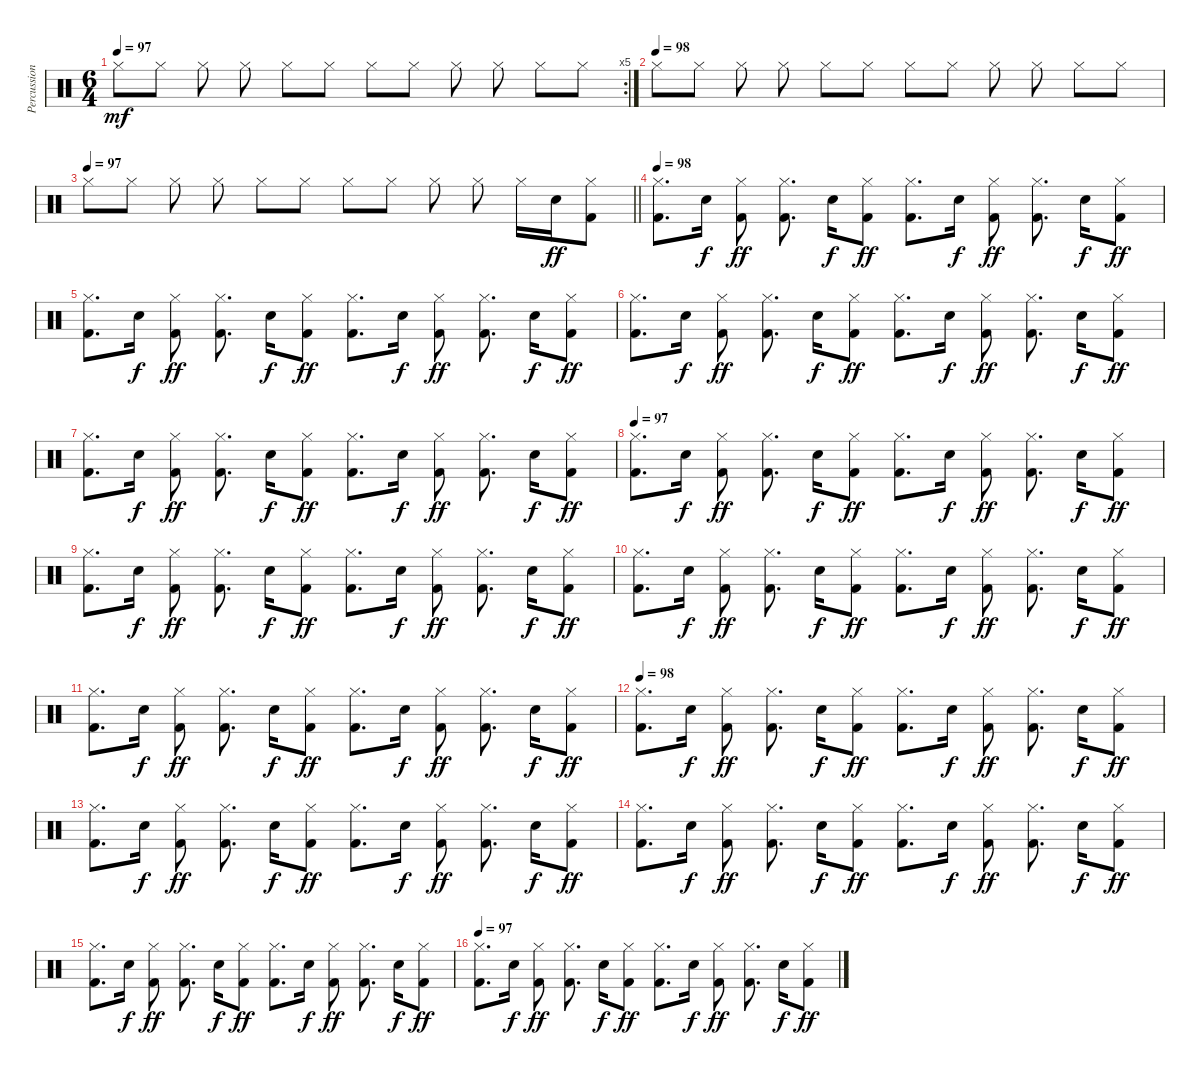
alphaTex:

\track ("Percussion" "Percussion") {instrument percussion}
\staff {score}
\articulation defaults
\rc 5
\ts (6 4)
\tempo 97
\clef neutral
\ks c "Hi-Hat (closed)".8{dy mf} "Hi-Hat (closed)".8 "Hi-Hat (closed)".8{beam split} "Hi-Hat (closed)".8 "Hi-Hat (closed)".8 "Hi-Hat (closed)".8 "Hi-Hat (closed)".8 "Hi-Hat (closed)".8 "Hi-Hat (closed)".8{beam split} "Hi-Hat (closed)".8 "Hi-Hat (closed)".8 "Hi-Hat (closed)".8
|
\tempo (98)
"Hi-Hat (closed)".8 "Hi-Hat (closed)".8 "Hi-Hat (closed)".8{beam split} "Hi-Hat (closed)".8 "Hi-Hat (closed)".8 "Hi-Hat (closed)".8 "Hi-Hat (closed)".8 "Hi-Hat (closed)".8 "Hi-Hat (closed)".8{beam split} "Hi-Hat (closed)".8 "Hi-Hat (closed)".8 "Hi-Hat (closed)".8 |
\tempo 97
\barLineRight lightlight "Hi-Hat (closed)".8 "Hi-Hat (closed)".8 "Hi-Hat (closed)".8{beam split} "Hi-Hat (closed)".8 "Hi-Hat (closed)".8 "Hi-Hat (closed)".8 "Hi-Hat (closed)".8 "Hi-Hat (closed)".8 "Hi-Hat (closed)".8{beam split} "Hi-Hat (closed)".8 "Hi-Hat (closed)".16 "Electric Snare (hit)".16{dy ff}
("Hi-Hat (closed)" "Kick (hit) 2").8 |
\tempo 98
("Hi-Hat (closed)" "Kick (hit) 2").8{d} "Electric Snare (hit)".16{dy f} ("Hi-Hat (closed)" "Kick (hit) 2").8{dy ff beam split} ("Hi-Hat (closed)" "Kick (hit) 2").8{d} "Electric Snare (hit)".16{dy f} ("Hi-Hat (closed)" "Kick (hit) 2").8{dy ff} ("Hi-Hat (closed)" "Kick (hit) 2").8{d} "Electric Snare (hit)".16{dy f} ("Hi-Hat (closed)" "Kick (hit) 2").8{dy ff beam split} ("Hi-Hat (closed)" "Kick (hit) 2").8{d} "Electric Snare (hit)".16{dy f} ("Hi-Hat (closed)" "Kick (hit) 2").8{dy ff} |
("Hi-Hat (closed)" "Kick (hit) 2").8{d} "Electric Snare (hit)".16{dy f} ("Hi-Hat (closed)" "Kick (hit) 2").8{dy ff beam split} ("Hi-Hat (closed)" "Kick (hit) 2").8{d} "Electric Snare (hit)".16{dy f} ("Hi-Hat (closed)" "Kick (hit) 2").8{dy ff} ("Hi-Hat (closed)" "Kick (hit) 2").8{d} "Electric Snare (hit)".16{dy f} ("Hi-Hat (closed)" "Kick (hit) 2").8{dy ff beam split} ("Hi-Hat (closed)" "Kick (hit) 2").8{d} "Electric Snare (hit)".16{dy f} ("Hi-Hat (closed)" "Kick (hit) 2").8{dy ff} |
("Hi-Hat (closed)" "Kick (hit) 2").8{d} "Electric Snare (hit)".16{dy f} ("Hi-Hat (closed)" "Kick (hit) 2").8{dy ff beam split} ("Hi-Hat (closed)" "Kick (hit) 2").8{d} "Electric Snare (hit)".16{dy f} ("Hi-Hat (closed)" "Kick (hit) 2").8{dy ff} ("Hi-Hat (closed)" "Kick (hit) 2").8{d} "Electric Snare (hit)".16{dy f} ("Hi-Hat (closed)" "Kick (hit) 2").8{dy ff beam split} ("Hi-Hat (closed)" "Kick (hit) 2").8{d} "Electric Snare (hit)".16{dy f} ("Hi-Hat (closed)" "Kick (hit) 2").8{dy ff} |
("Hi-Hat (closed)" "Kick (hit) 2").8{d} "Electric Snare (hit)".16{dy f} ("Hi-Hat (closed)" "Kick (hit) 2").8{dy ff beam split} ("Hi-Hat (closed)" "Kick (hit) 2").8{d} "Electric Snare (hit)".16{dy f} ("Hi-Hat (closed)" "Kick (hit) 2").8{dy ff} ("Hi-Hat (closed)" "Kick (hit) 2").8{d} "Electric Snare (hit)".16{dy f} ("Hi-Hat (closed)" "Kick (hit) 2").8{dy ff beam split} ("Hi-Hat (closed)" "Kick (hit) 2").8{d} "Electric Snare (hit)".16{dy f} ("Hi-Hat (closed)" "Kick (hit) 2").8{dy ff} |
\tempo 97
("Hi-Hat (closed)" "Kick (hit) 2").8{d} "Electric Snare (hit)".16{dy f} ("Hi-Hat (closed)" "Kick (hit) 2").8{dy ff beam split} ("Hi-Hat (closed)" "Kick (hit) 2").8{d} "Electric Snare (hit)".16{dy f} ("Hi-Hat (closed)" "Kick (hit) 2").8{dy ff} ("Hi-Hat (closed)" "Kick (hit) 2").8{d} "Electric Snare (hit)".16{dy f} ("Hi-Hat (closed)" "Kick (hit) 2").8{dy ff beam split} ("Hi-Hat (closed)" "Kick (hit) 2").8{d} "Electric Snare (hit)".16{dy f} ("Hi-Hat (closed)" "Kick (hit) 2").8{dy ff} |
("Hi-Hat (closed)" "Kick (hit) 2").8{d} "Electric Snare (hit)".16{dy f} ("Hi-Hat (closed)" "Kick (hit) 2").8{dy ff beam split} ("Hi-Hat (closed)" "Kick (hit) 2").8{d} "Electric Snare (hit)".16{dy f} ("Hi-Hat (closed)" "Kick (hit) 2").8{dy ff} ("Hi-Hat (closed)" "Kick (hit) 2").8{d} "Electric Snare (hit)".16{dy f} ("Hi-Hat (closed)" "Kick (hit) 2").8{dy ff beam split} ("Hi-Hat (closed)" "Kick (hit) 2").8{d} "Electric Snare (hit)".16{dy f} ("Hi-Hat (closed)" "Kick (hit) 2").8{dy ff} |
("Hi-Hat (closed)" "Kick (hit) 2").8{d} "Electric Snare (hit)".16{dy f} ("Hi-Hat (closed)" "Kick (hit) 2").8{dy ff beam split} ("Hi-Hat (closed)" "Kick (hit) 2").8{d} "Electric Snare (hit)".16{dy f} ("Hi-Hat (closed)" "Kick (hit) 2").8{dy ff} ("Hi-Hat (closed)" "Kick (hit) 2").8{d} "Electric Snare (hit)".16{dy f} ("Hi-Hat (closed)" "Kick (hit) 2").8{dy ff beam split} ("Hi-Hat (closed)" "Kick (hit) 2").8{d} "Electric Snare (hit)".16{dy f} ("Hi-Hat (closed)" "Kick (hit) 2").8{dy ff} |
("Hi-Hat (closed)" "Kick (hit) 2").8{d} "Electric Snare (hit)".16{dy f} ("Hi-Hat (closed)" "Kick (hit) 2").8{dy ff beam split} ("Hi-Hat (closed)" "Kick (hit) 2").8{d} "Electric Snare (hit)".16{dy f} ("Hi-Hat (closed)" "Kick (hit) 2").8{dy ff} ("Hi-Hat (closed)" "Kick (hit) 2").8{d} "Electric Snare (hit)".16{dy f} ("Hi-Hat (closed)" "Kick (hit) 2").8{dy ff beam split} ("Hi-Hat (closed)" "Kick (hit) 2").8{d} "Electric Snare (hit)".16{dy f} ("Hi-Hat (closed)" "Kick (hit) 2").8{dy ff} |
\tempo 98
("Hi-Hat (closed)" "Kick (hit) 2").8{d} "Electric Snare (hit)".16{dy f} ("Hi-Hat (closed)" "Kick (hit) 2").8{dy ff beam split} ("Hi-Hat (closed)" "Kick (hit) 2").8{d} "Electric Snare (hit)".16{dy f} ("Hi-Hat (closed)" "Kick (hit) 2").8{dy ff} ("Hi-Hat (closed)" "Kick (hit) 2").8{d} "Electric Snare (hit)".16{dy f} ("Hi-Hat (closed)" "Kick (hit) 2").8{dy ff beam split} ("Hi-Hat (closed)" "Kick (hit) 2").8{d} "Electric Snare (hit)".16{dy f} ("Hi-Hat (closed)" "Kick (hit) 2").8{dy ff} |
("Hi-Hat (closed)" "Kick (hit) 2").8{d} "Electric Snare (hit)".16{dy f} ("Hi-Hat (closed)" "Kick (hit) 2").8{dy ff beam split} ("Hi-Hat (closed)" "Kick (hit) 2").8{d} "Electric Snare (hit)".16{dy f} ("Hi-Hat (closed)" "Kick (hit) 2").8{dy ff} ("Hi-Hat (closed)" "Kick (hit) 2").8{d} "Electric Snare (hit)".16{dy f} ("Hi-Hat (closed)" "Kick (hit) 2").8{dy ff beam split} ("Hi-Hat (closed)" "Kick (hit) 2").8{d} "Electric Snare (hit)".16{dy f} ("Hi-Hat (closed)" "Kick (hit) 2").8{dy ff} |
("Hi-Hat (closed)" "Kick (hit) 2").8{d} "Electric Snare (hit)".16{dy f} ("Hi-Hat (closed)" "Kick (hit) 2").8{dy ff beam split} ("Hi-Hat (closed)" "Kick (hit) 2").8{d} "Electric Snare (hit)".16{dy f} ("Hi-Hat (closed)" "Kick (hit) 2").8{dy ff} ("Hi-Hat (closed)" "Kick (hit) 2").8{d} "Electric Snare (hit)".16{dy f} ("Hi-Hat (closed)" "Kick (hit) 2").8{dy ff beam split} ("Hi-Hat (closed)" "Kick (hit) 2").8{d} "Electric Snare (hit)".16{dy f} ("Hi-Hat (closed)" "Kick (hit) 2").8{dy ff} |
("Hi-Hat (closed)" "Kick (hit) 2").8{d} "Electric Snare (hit)".16{dy f} ("Hi-Hat (closed)" "Kick (hit) 2").8{dy ff beam split} ("Hi-Hat (closed)" "Kick (hit) 2").8{d} "Electric Snare (hit)".16{dy f} ("Hi-Hat (closed)" "Kick (hit) 2").8{dy ff} ("Hi-Hat (closed)" "Kick (hit) 2").8{d} "Electric Snare (hit)".16{dy f} ("Hi-Hat (closed)" "Kick (hit) 2").8{dy ff beam split} ("Hi-Hat (closed)" "Kick (hit) 2").8{d} "Electric Snare (hit)".16{dy f} ("Hi-Hat (closed)" "Kick (hit) 2").8{dy ff} |
\tempo 97
("Hi-Hat (closed)" "Kick (hit) 2").8{d} "Electric Snare (hit)".16{dy f} ("Hi-Hat (closed)" "Kick (hit) 2").8{dy ff beam split} ("Hi-Hat (closed)" "Kick (hit) 2").8{d} "Electric Snare (hit)".16{dy f} ("Hi-Hat (closed)" "Kick (hit) 2").8{dy ff} ("Hi-Hat (closed)" "Kick (hit) 2").8{d} "Electric Snare (hit)".16{dy f} ("Hi-Hat (closed)" "Kick (hit) 2").8{dy ff beam split} ("Hi-Hat (closed)" "Kick (hit) 2").8{d} "Electric Snare (hit)".16{dy f} ("Hi-Hat (closed)" "Kick (hit) 2").8{dy ff}
